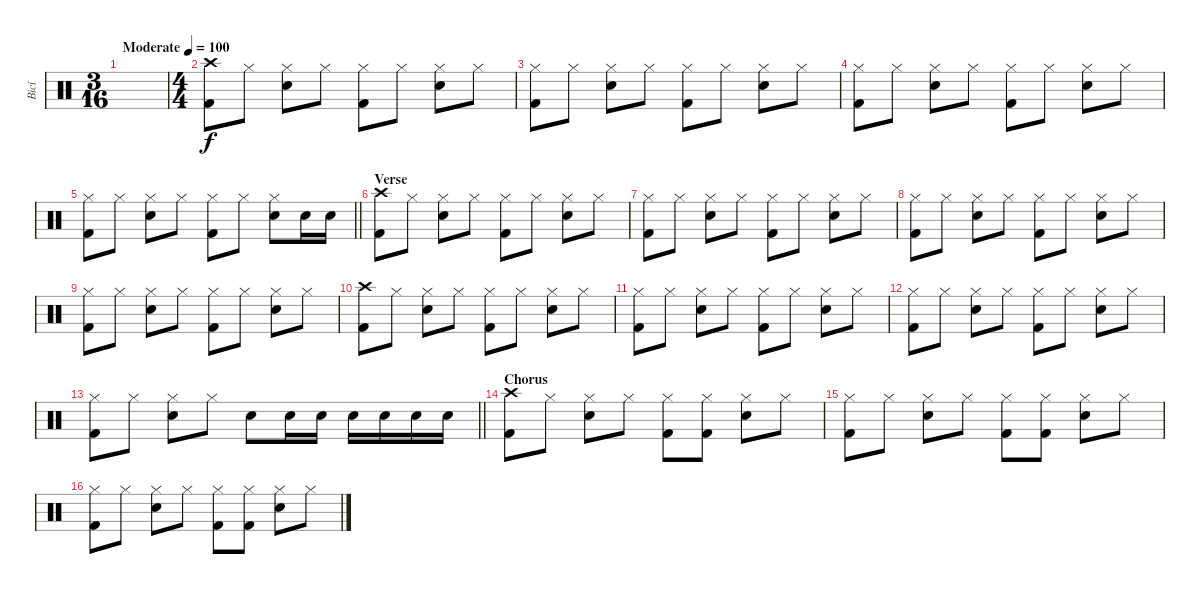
\track ("Bicí" "Bicí") {instrument percussion}
\staff {score}
\articulation defaults
\ts (3 16)
\tempo (100 "Moderate")
\clef neutral
\ks c
|
\ts (4 4)
("Crash high (hit)" "Kick (hit) 2").8 "Hi-Hat (closed)".8 ("Hi-Hat (closed)" "Electric Snare (hit)").8 "Hi-Hat (closed)".8 ("Hi-Hat (closed)" "Kick (hit) 2").8 "Hi-Hat (closed)".8 ("Hi-Hat (closed)" "Electric Snare (hit)").8 "Hi-Hat (closed)".8 |
("Hi-Hat (closed)" "Kick (hit) 2").8 "Hi-Hat (closed)".8 ("Hi-Hat (closed)" "Electric Snare (hit)").8 "Hi-Hat (closed)".8 ("Hi-Hat (closed)" "Kick (hit) 2").8 "Hi-Hat (closed)".8 ("Hi-Hat (closed)" "Electric Snare (hit)").8 "Hi-Hat (closed)".8 |
("Hi-Hat (closed)" "Kick (hit) 2").8 "Hi-Hat (closed)".8 ("Hi-Hat (closed)" "Electric Snare (hit)").8 "Hi-Hat (closed)".8 ("Hi-Hat (closed)" "Kick (hit) 2").8 "Hi-Hat (closed)".8 ("Hi-Hat (closed)" "Electric Snare (hit)").8 "Hi-Hat (closed)".8 |
\barLineRight lightlight
("Hi-Hat (closed)" "Kick (hit) 2").8 "Hi-Hat (closed)".8 ("Hi-Hat (closed)" "Electric Snare (hit)").8 "Hi-Hat (closed)".8 ("Hi-Hat (closed)" "Kick (hit) 2").8 "Hi-Hat (closed)".8 ("Hi-Hat (closed)" "Electric Snare (hit)").8 "Electric Snare (hit)".16 "Electric Snare (hit)".16 |
\section ("" "Verse")
("Crash high (hit)" "Kick (hit) 2").8 "Hi-Hat (closed)".8 ("Hi-Hat (closed)" "Electric Snare (hit)").8 "Hi-Hat (closed)".8 ("Hi-Hat (closed)" "Kick (hit) 2").8 "Hi-Hat (closed)".8 ("Hi-Hat (closed)" "Electric Snare (hit)").8 "Hi-Hat (closed)".8 |
("Hi-Hat (closed)" "Kick (hit) 2").8 "Hi-Hat (closed)".8 ("Hi-Hat (closed)" "Electric Snare (hit)").8 "Hi-Hat (closed)".8 ("Hi-Hat (closed)" "Kick (hit) 2").8 "Hi-Hat (closed)".8 ("Hi-Hat (closed)" "Electric Snare (hit)").8 "Hi-Hat (closed)".8 |
("Hi-Hat (closed)" "Kick (hit) 2").8 "Hi-Hat (closed)".8 ("Hi-Hat (closed)" "Electric Snare (hit)").8 "Hi-Hat (closed)".8 ("Hi-Hat (closed)" "Kick (hit) 2").8 "Hi-Hat (closed)".8 ("Hi-Hat (closed)" "Electric Snare (hit)").8 "Hi-Hat (closed)".8 |
("Hi-Hat (closed)" "Kick (hit) 2").8 "Hi-Hat (closed)".8 ("Hi-Hat (closed)" "Electric Snare (hit)").8 "Hi-Hat (closed)".8 ("Hi-Hat (closed)" "Kick (hit) 2").8 "Hi-Hat (closed)".8 ("Hi-Hat (closed)" "Electric Snare (hit)").8 "Hi-Hat (closed)".8 |
("Crash high (hit)" "Kick (hit) 2").8 "Hi-Hat (closed)".8 ("Hi-Hat (closed)" "Electric Snare (hit)").8 "Hi-Hat (closed)".8 ("Hi-Hat (closed)" "Kick (hit) 2").8 "Hi-Hat (closed)".8 ("Hi-Hat (closed)" "Electric Snare (hit)").8 "Hi-Hat (closed)".8 |
("Hi-Hat (closed)" "Kick (hit) 2").8 "Hi-Hat (closed)".8 ("Hi-Hat (closed)" "Electric Snare (hit)").8 "Hi-Hat (closed)".8 ("Hi-Hat (closed)" "Kick (hit) 2").8 "Hi-Hat (closed)".8 ("Hi-Hat (closed)" "Electric Snare (hit)").8 "Hi-Hat (closed)".8 |
("Hi-Hat (closed)" "Kick (hit) 2").8 "Hi-Hat (closed)".8 ("Hi-Hat (closed)" "Electric Snare (hit)").8 "Hi-Hat (closed)".8 ("Hi-Hat (closed)" "Kick (hit) 2").8 "Hi-Hat (closed)".8 ("Hi-Hat (closed)" "Electric Snare (hit)").8 "Hi-Hat (closed)".8 |
\barLineRight lightlight
("Hi-Hat (closed)" "Kick (hit) 2").8 "Hi-Hat (closed)".8 ("Hi-Hat (closed)" "Electric Snare (hit)").8 "Hi-Hat (closed)".8 "Electric Snare (hit)".8 "Electric Snare (hit)".16 "Electric Snare (hit)".16 "Electric Snare (hit)".16 "Electric Snare (hit)".16 "Electric Snare (hit)".16 "Electric Snare (hit)".16 |
\section ("" "Chorus")
("Crash high (hit)" "Kick (hit) 2").8 "Hi-Hat (closed)".8 ("Hi-Hat (closed)" "Electric Snare (hit)").8 "Hi-Hat (closed)".8 ("Hi-Hat (closed)" "Kick (hit) 2").8 ("Hi-Hat (closed)" "Kick (hit) 2").8 ("Hi-Hat (closed)" "Electric Snare (hit)").8 "Hi-Hat (closed)".8 |
("Hi-Hat (closed)" "Kick (hit) 2").8 "Hi-Hat (closed)".8 ("Hi-Hat (closed)" "Electric Snare (hit)").8 "Hi-Hat (closed)".8 ("Hi-Hat (closed)" "Kick (hit) 2").8 ("Hi-Hat (closed)" "Kick (hit) 2").8 ("Hi-Hat (closed)" "Electric Snare (hit)").8 "Hi-Hat (closed)".8 |
("Hi-Hat (closed)" "Kick (hit) 2").8 "Hi-Hat (closed)".8 ("Hi-Hat (closed)" "Electric Snare (hit)").8 "Hi-Hat (closed)".8 ("Hi-Hat (closed)" "Kick (hit) 2").8 ("Hi-Hat (closed)" "Kick (hit) 2").8 ("Hi-Hat (closed)" "Electric Snare (hit)").8 "Hi-Hat (closed)".8
